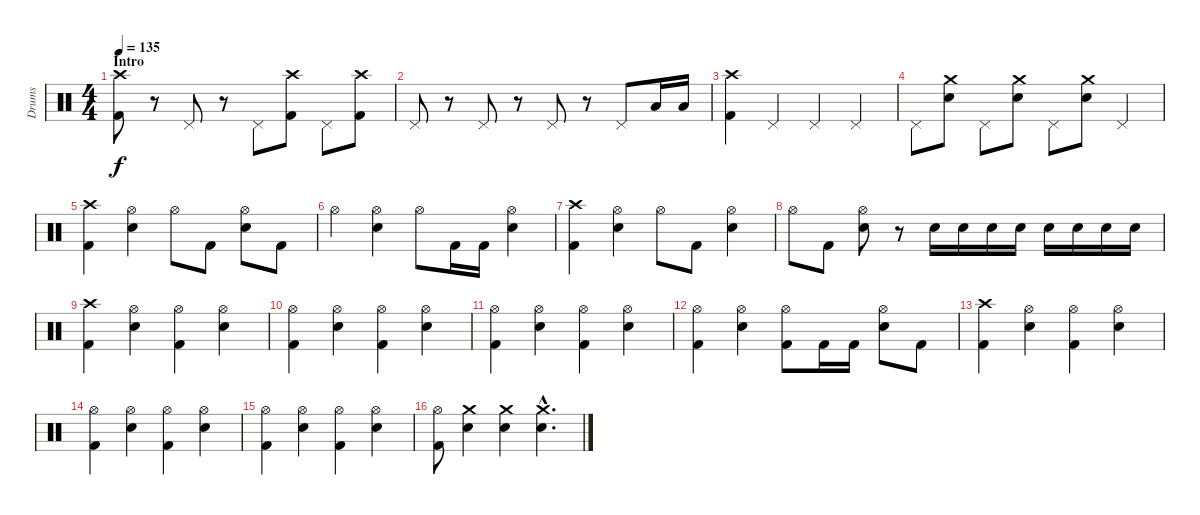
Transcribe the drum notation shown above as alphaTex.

\track ("Drums" "Drums") {instrument percussion}
\staff {score}
\articulation defaults
\ts (4 4)
\section ("" "Intro")
\tempo 135
\clef neutral
\ks c
("Crash high (hit)" "Kick (hit) 2").8{dy f} r.8 "Pedal Hi-Hat (hit)".8 r.8 "Pedal Hi-Hat (hit)".8 ("Crash high (hit)" "Kick (hit) 2").8 "Pedal Hi-Hat (hit)".8 ("Crash high (hit)" "Kick (hit) 2").8 |
"Pedal Hi-Hat (hit)".8 r.8 "Pedal Hi-Hat (hit)".8 r.8 "Pedal Hi-Hat (hit)".8 r.8 "Pedal Hi-Hat (hit)".8 "Low Tom (hit)".16 "Low Tom (hit)".16 |
("Crash high (hit)" "Kick (hit) 2").4 "Pedal Hi-Hat (hit)".4 "Pedal Hi-Hat (hit)".4 "Pedal Hi-Hat (hit)".4 |
"Pedal Hi-Hat (hit)".8 ("Crash medium (hit)" "Snare (hit) 2").8 "Pedal Hi-Hat (hit)".8 ("Crash medium (hit)" "Snare (hit) 2").8 "Pedal Hi-Hat (hit)".8 ("Crash medium (hit)" "Snare (hit) 2").8 "Pedal Hi-Hat (hit)".4 |
("Crash high (hit)" "Kick (hit) 2").4 ("Hi-Hat (open)" "Snare (hit) 2").4 "Hi-Hat (open)".8 "Kick (hit) 2".8 ("Hi-Hat (open)" "Snare (hit) 2").8 "Kick (hit) 2".8 |
"Hi-Hat (open)".4 ("Hi-Hat (open)" "Snare (hit) 2").4 "Hi-Hat (open)".8 "Kick (hit) 2".16 "Kick (hit) 2".16 ("Hi-Hat (open)" "Snare (hit) 2").4 |
("Crash high (hit)" "Kick (hit) 2").4 ("Hi-Hat (open)" "Snare (hit) 2").4 "Hi-Hat (open)".8 "Kick (hit) 2".8 ("Hi-Hat (open)" "Snare (hit) 2").4 |
"Hi-Hat (open)".8 "Kick (hit) 2".8 ("Hi-Hat (open)" "Snare (hit) 2").8 r.8 "Snare (hit) 2".16 "Snare (hit) 2".16 "Snare (hit) 2".16 "Snare (hit) 2".16 "Snare (hit) 2".16 "Snare (hit) 2".16 "Snare (hit) 2".16 "Snare (hit) 2".16 |
("Crash high (hit)" "Kick (hit) 2").4 ("Hi-Hat (open)" "Snare (hit) 2").4 ("Hi-Hat (open)" "Kick (hit) 2").4 ("Hi-Hat (open)" "Snare (hit) 2").4 |
("Hi-Hat (open)" "Kick (hit) 2").4 ("Hi-Hat (open)" "Snare (hit) 2").4 ("Hi-Hat (open)" "Kick (hit) 2").4 ("Hi-Hat (open)" "Snare (hit) 2").4 |
("Hi-Hat (open)" "Kick (hit) 2").4 ("Hi-Hat (open)" "Snare (hit) 2").4 ("Hi-Hat (open)" "Kick (hit) 2").4 ("Hi-Hat (open)" "Snare (hit) 2").4 |
("Hi-Hat (open)" "Kick (hit) 2").4 ("Hi-Hat (open)" "Snare (hit) 2").4 ("Hi-Hat (open)" "Kick (hit) 2").8 "Kick (hit) 2".16 "Kick (hit) 2".16 ("Hi-Hat (open)" "Snare (hit) 2").8 "Kick (hit) 2".8 |
("Crash high (hit)" "Kick (hit) 2").4 ("Hi-Hat (open)" "Snare (hit) 2").4 ("Hi-Hat (open)" "Kick (hit) 2").4 ("Hi-Hat (open)" "Snare (hit) 2").4 |
("Hi-Hat (open)" "Kick (hit) 2").4 ("Hi-Hat (open)" "Snare (hit) 2").4 ("Hi-Hat (open)" "Kick (hit) 2").4 ("Hi-Hat (open)" "Snare (hit) 2").4 |
("Hi-Hat (open)" "Kick (hit) 2").4 ("Hi-Hat (open)" "Snare (hit) 2").4 ("Hi-Hat (open)" "Kick (hit) 2").4 ("Hi-Hat (open)" "Snare (hit) 2").4 |
("Hi-Hat (open)" "Kick (hit) 2").8 ("Crash medium (hit)" "Snare (hit) 2").4 ("Crash medium (hit)" "Snare (hit) 2").4 ("Crash medium (hit)"{hac} "Snare (hit) 2"{hac}).4{d}
